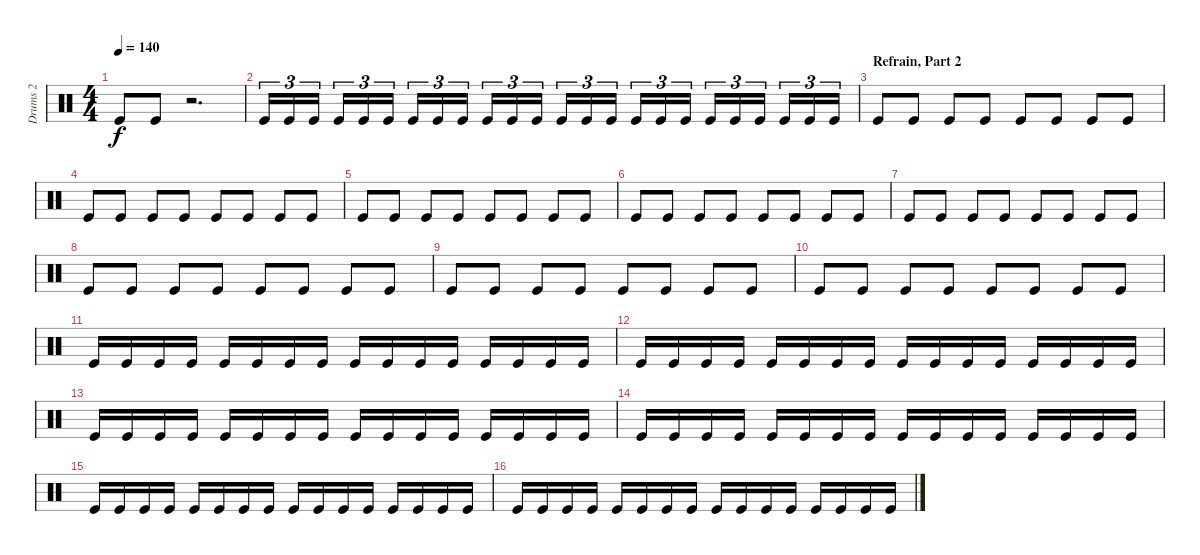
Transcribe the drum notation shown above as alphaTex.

\track ("Drums 2" "Drums 2") {instrument percussion}
\staff {score}
\articulation defaults
\ts (4 4)
\tempo 140
\clef neutral
\ks c "Kick (hit)".8{dy f} "Kick (hit)".8
r.2{d} |
"Kick (hit)".16{tu (3 2)} "Kick (hit)".16{tu (3 2)} "Kick (hit)".16{tu (3 2)} "Kick (hit)".16{tu (3 2)} "Kick (hit)".16{tu (3 2)} "Kick (hit)".16{tu (3 2)} "Kick (hit)".16{tu (3 2)} "Kick (hit)".16{tu (3 2)} "Kick (hit)".16{tu (3 2)} "Kick (hit)".16{tu (3 2)} "Kick (hit)".16{tu (3 2)} "Kick (hit)".16{tu (3 2)} "Kick (hit)".16{tu (3 2)} "Kick (hit)".16{tu (3 2)} "Kick (hit)".16{tu (3 2)} "Kick (hit)".16{tu (3 2)} "Kick (hit)".16{tu (3 2)} "Kick (hit)".16{tu (3 2)} "Kick (hit)".16{tu (3 2)} "Kick (hit)".16{tu (3 2)} "Kick (hit)".16{tu (3 2)} "Kick (hit)".16{tu (3 2)} "Kick (hit)".16{tu (3 2)} "Kick (hit)".16{tu (3 2)} |
\section ("" "Refrain, Part 2")
"Kick (hit)".8 "Kick (hit)".8 "Kick (hit)".8 "Kick (hit)".8 "Kick (hit)".8 "Kick (hit)".8 "Kick (hit)".8 "Kick (hit)".8 |
"Kick (hit)".8 "Kick (hit)".8 "Kick (hit)".8 "Kick (hit)".8 "Kick (hit)".8 "Kick (hit)".8 "Kick (hit)".8 "Kick (hit)".8 |
"Kick (hit)".8 "Kick (hit)".8 "Kick (hit)".8 "Kick (hit)".8 "Kick (hit)".8 "Kick (hit)".8 "Kick (hit)".8 "Kick (hit)".8 |
"Kick (hit)".8 "Kick (hit)".8 "Kick (hit)".8 "Kick (hit)".8 "Kick (hit)".8 "Kick (hit)".8 "Kick (hit)".8 "Kick (hit)".8 |
"Kick (hit)".8 "Kick (hit)".8 "Kick (hit)".8 "Kick (hit)".8 "Kick (hit)".8 "Kick (hit)".8 "Kick (hit)".8 "Kick (hit)".8 |
"Kick (hit)".8 "Kick (hit)".8 "Kick (hit)".8 "Kick (hit)".8 "Kick (hit)".8 "Kick (hit)".8 "Kick (hit)".8 "Kick (hit)".8 |
"Kick (hit)".8 "Kick (hit)".8 "Kick (hit)".8 "Kick (hit)".8 "Kick (hit)".8 "Kick (hit)".8 "Kick (hit)".8 "Kick (hit)".8 |
"Kick (hit)".8 "Kick (hit)".8 "Kick (hit)".8 "Kick (hit)".8 "Kick (hit)".8 "Kick (hit)".8 "Kick (hit)".8 "Kick (hit)".8 |
"Kick (hit)".16 "Kick (hit)".16 "Kick (hit)".16 "Kick (hit)".16 "Kick (hit)".16 "Kick (hit)".16 "Kick (hit)".16 "Kick (hit)".16 "Kick (hit)".16 "Kick (hit)".16 "Kick (hit)".16 "Kick (hit)".16 "Kick (hit)".16 "Kick (hit)".16 "Kick (hit)".16 "Kick (hit)".16 |
"Kick (hit)".16 "Kick (hit)".16 "Kick (hit)".16 "Kick (hit)".16 "Kick (hit)".16 "Kick (hit)".16 "Kick (hit)".16 "Kick (hit)".16 "Kick (hit)".16 "Kick (hit)".16 "Kick (hit)".16 "Kick (hit)".16 "Kick (hit)".16 "Kick (hit)".16 "Kick (hit)".16 "Kick (hit)".16 |
"Kick (hit)".16 "Kick (hit)".16 "Kick (hit)".16 "Kick (hit)".16 "Kick (hit)".16 "Kick (hit)".16 "Kick (hit)".16 "Kick (hit)".16 "Kick (hit)".16 "Kick (hit)".16 "Kick (hit)".16 "Kick (hit)".16 "Kick (hit)".16 "Kick (hit)".16 "Kick (hit)".16 "Kick (hit)".16 |
"Kick (hit)".16 "Kick (hit)".16 "Kick (hit)".16 "Kick (hit)".16 "Kick (hit)".16 "Kick (hit)".16 "Kick (hit)".16 "Kick (hit)".16 "Kick (hit)".16 "Kick (hit)".16 "Kick (hit)".16 "Kick (hit)".16 "Kick (hit)".16 "Kick (hit)".16 "Kick (hit)".16 "Kick (hit)".16 |
"Kick (hit)".16 "Kick (hit)".16 "Kick (hit)".16 "Kick (hit)".16 "Kick (hit)".16 "Kick (hit)".16 "Kick (hit)".16 "Kick (hit)".16 "Kick (hit)".16 "Kick (hit)".16 "Kick (hit)".16 "Kick (hit)".16 "Kick (hit)".16 "Kick (hit)".16 "Kick (hit)".16 "Kick (hit)".16 |
"Kick (hit)".16 "Kick (hit)".16 "Kick (hit)".16 "Kick (hit)".16 "Kick (hit)".16 "Kick (hit)".16 "Kick (hit)".16 "Kick (hit)".16 "Kick (hit)".16 "Kick (hit)".16 "Kick (hit)".16 "Kick (hit)".16 "Kick (hit)".16 "Kick (hit)".16 "Kick (hit)".16 "Kick (hit)".16
